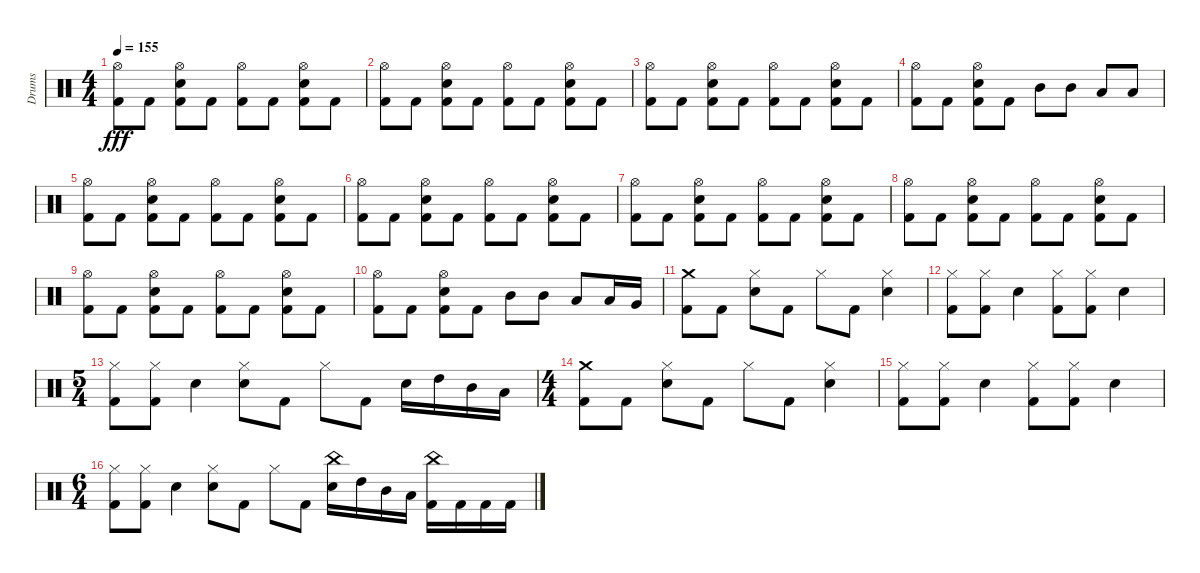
\track ("Drums" "Drums") {instrument percussion}
\staff {score}
\articulation defaults
\ts (4 4)
\tempo 155
\clef neutral
\ks c
("Hi-Hat (open)" "Kick (hit) 2").8{dy fff} "Kick (hit) 2".8 ("Electric Snare (hit)" "Hi-Hat (open)" "Kick (hit) 2").8 "Kick (hit) 2".8 ("Hi-Hat (open)" "Kick (hit) 2").8 "Kick (hit) 2".8 ("Electric Snare (hit)" "Hi-Hat (open)" "Kick (hit) 2").8 "Kick (hit) 2".8 |
("Hi-Hat (open)" "Kick (hit) 2").8 "Kick (hit) 2".8 ("Electric Snare (hit)" "Hi-Hat (open)" "Kick (hit) 2").8 "Kick (hit) 2".8 ("Hi-Hat (open)" "Kick (hit) 2").8 "Kick (hit) 2".8 ("Electric Snare (hit)" "Hi-Hat (open)" "Kick (hit) 2").8 "Kick (hit) 2".8 |
("Hi-Hat (open)" "Kick (hit) 2").8 "Kick (hit) 2".8 ("Electric Snare (hit)" "Hi-Hat (open)" "Kick (hit) 2").8 "Kick (hit) 2".8 ("Hi-Hat (open)" "Kick (hit) 2").8 "Kick (hit) 2".8 ("Electric Snare (hit)" "Hi-Hat (open)" "Kick (hit) 2").8 "Kick (hit) 2".8 |
("Hi-Hat (open)" "Kick (hit) 2").8 "Kick (hit) 2".8 ("Electric Snare (hit)" "Hi-Hat (open)" "Kick (hit) 2").8 "Kick (hit) 2".8 "Mid Tom (hit)".8 "Mid Tom (hit)".8 "Low Tom (hit)".8 "Low Floor Tom (hit)".8 |
("Hi-Hat (open)" "Kick (hit) 2").8 "Kick (hit) 2".8 ("Electric Snare (hit)" "Hi-Hat (open)" "Kick (hit) 2").8 "Kick (hit) 2".8 ("Hi-Hat (open)" "Kick (hit) 2").8 "Kick (hit) 2".8 ("Electric Snare (hit)" "Hi-Hat (open)" "Kick (hit) 2").8 "Kick (hit) 2".8 |
("Hi-Hat (open)" "Kick (hit) 2").8 "Kick (hit) 2".8 ("Electric Snare (hit)" "Hi-Hat (open)" "Kick (hit) 2").8 "Kick (hit) 2".8 ("Hi-Hat (open)" "Kick (hit) 2").8 "Kick (hit) 2".8 ("Electric Snare (hit)" "Hi-Hat (open)" "Kick (hit) 2").8 "Kick (hit) 2".8 |
("Hi-Hat (open)" "Kick (hit) 2").8 "Kick (hit) 2".8 ("Electric Snare (hit)" "Hi-Hat (open)" "Kick (hit) 2").8 "Kick (hit) 2".8 ("Hi-Hat (open)" "Kick (hit) 2").8 "Kick (hit) 2".8 ("Electric Snare (hit)" "Hi-Hat (open)" "Kick (hit) 2").8 "Kick (hit) 2".8 |
("Hi-Hat (open)" "Kick (hit) 2").8 "Kick (hit) 2".8 ("Electric Snare (hit)" "Hi-Hat (open)" "Kick (hit) 2").8 "Kick (hit) 2".8 ("Hi-Hat (open)" "Kick (hit) 2").8 "Kick (hit) 2".8 ("Electric Snare (hit)" "Hi-Hat (open)" "Kick (hit) 2").8 "Kick (hit) 2".8 |
("Hi-Hat (open)" "Kick (hit) 2").8 "Kick (hit) 2".8 ("Electric Snare (hit)" "Hi-Hat (open)" "Kick (hit) 2").8 "Kick (hit) 2".8 ("Hi-Hat (open)" "Kick (hit) 2").8 "Kick (hit) 2".8 ("Electric Snare (hit)" "Hi-Hat (open)" "Kick (hit) 2").8 "Kick (hit) 2".8 |
("Hi-Hat (open)" "Kick (hit) 2").8 "Kick (hit) 2".8 ("Electric Snare (hit)" "Hi-Hat (open)" "Kick (hit) 2").8 "Kick (hit) 2".8 "Mid Tom (hit)".8 "Mid Tom (hit)".8 "Low Tom (hit)".8 "Low Floor Tom (hit)".16 "Very Low Tom (hit)".16 |
("Crash medium (hit)" "Kick (hit) 2").8 "Kick (hit) 2".8 ("Electric Snare (hit)" "Hi-Hat (closed)").8 "Kick (hit) 2".8 "Hi-Hat (closed)".8 "Kick (hit) 2".8 ("Electric Snare (hit)" "Hi-Hat (closed)").4 |
("Hi-Hat (closed)" "Kick (hit) 2").8 ("Hi-Hat (closed)" "Kick (hit) 2").8 "Electric Snare (hit)".4 ("Hi-Hat (closed)" "Kick (hit) 2").8 ("Hi-Hat (closed)" "Kick (hit) 2").8 "Electric Snare (hit)".4 |
\ts (5 4)
("Hi-Hat (closed)" "Kick (hit) 2").8 ("Hi-Hat (closed)" "Kick (hit) 2").8 "Electric Snare (hit)".4 ("Electric Snare (hit)" "Hi-Hat (closed)").8 "Kick (hit) 2".8 "Hi-Hat (closed)".8 "Kick (hit) 2".8 "Electric Snare (hit)".16 "High Tom (hit)".16 "Mid Tom (hit)".16 "Low Tom (hit)".16 |
\ts (4 4)
("Crash medium (hit)" "Kick (hit) 2").8 "Kick (hit) 2".8 ("Electric Snare (hit)" "Hi-Hat (closed)").8 "Kick (hit) 2".8 "Hi-Hat (closed)".8 "Kick (hit) 2".8 ("Electric Snare (hit)" "Hi-Hat (closed)").4 |
("Hi-Hat (closed)" "Kick (hit) 2").8 ("Hi-Hat (closed)" "Kick (hit) 2").8 "Electric Snare (hit)".4 ("Hi-Hat (closed)" "Kick (hit) 2").8 ("Hi-Hat (closed)" "Kick (hit) 2").8 "Electric Snare (hit)".4 |
\ts (6 4)
("Hi-Hat (closed)" "Kick (hit) 2").8 ("Hi-Hat (closed)" "Kick (hit) 2").8 "Electric Snare (hit)".4 ("Electric Snare (hit)" "Hi-Hat (closed)").8 "Kick (hit) 2".8 "Hi-Hat (closed)".8 "Kick (hit) 2".8 ("Electric Snare (hit)" "China (hit)").16 "High Tom (hit)".16 "Mid Tom (hit)".16 "Low Tom (hit)".16 ("China (hit)" "Kick (hit) 2").16 "Kick (hit) 2".16 "Kick (hit) 2".16 "Kick (hit) 2".16
